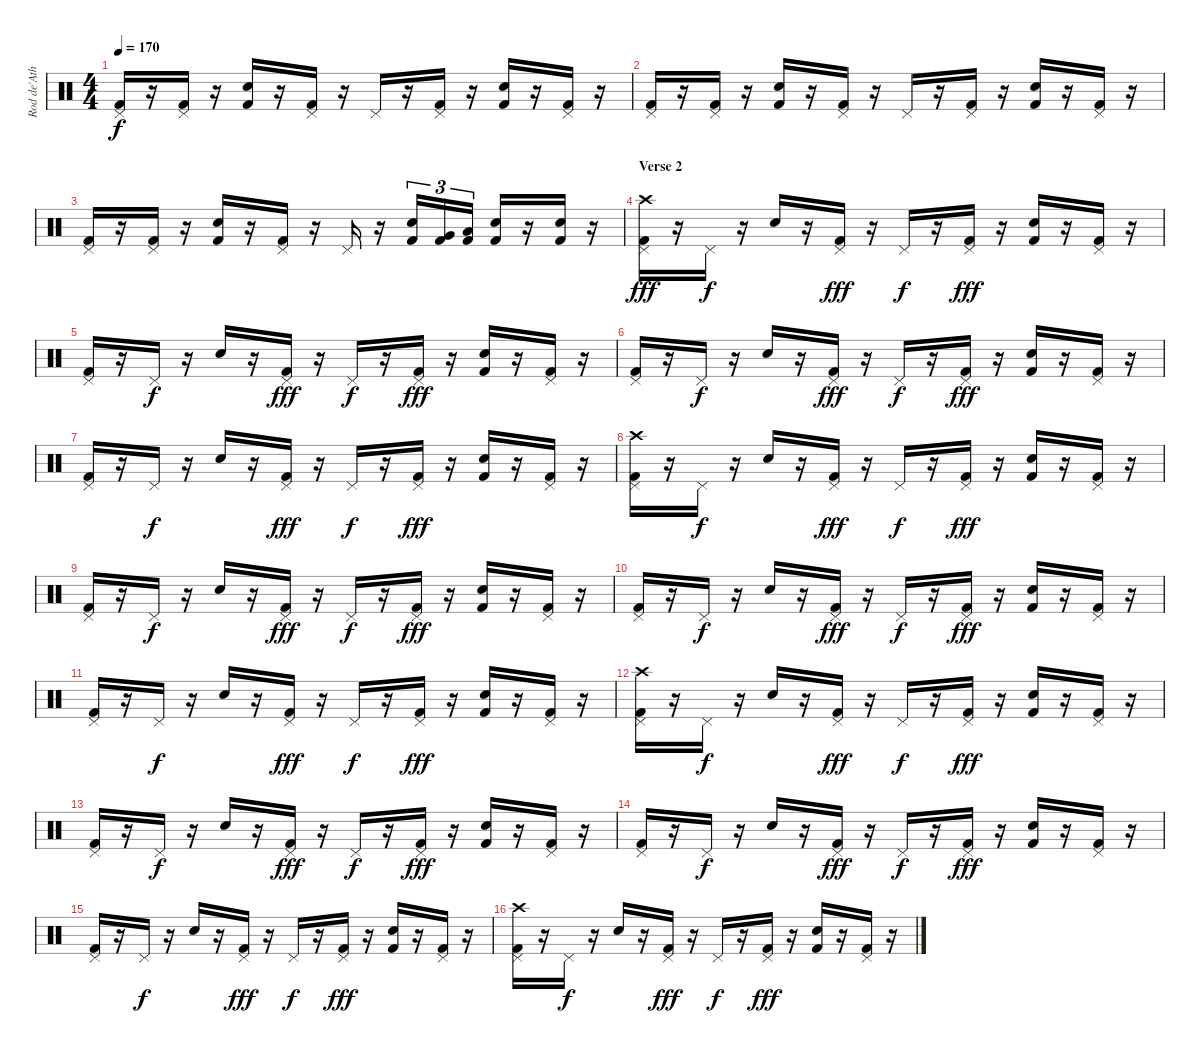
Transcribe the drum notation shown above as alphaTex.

\track ("Rod de'Ath" "Rod de'Ath") {instrument percussion}
\staff {score}
\articulation defaults
\ts (4 4)
\tempo 170
\clef neutral
\ks c
("Pedal Hi-Hat (hit)" "Kick (hit) 2").16{dy f} r.16 ("Pedal Hi-Hat (hit)" "Kick (hit) 2").16 r.16 ("Snare (hit) 2" "Kick (hit) 2").16 r.16 ("Pedal Hi-Hat (hit)" "Kick (hit) 2").16 r.16 "Pedal Hi-Hat (hit)".16 r.16 ("Pedal Hi-Hat (hit)" "Kick (hit) 2").16 r.16 ("Electric Snare (hit)" "Kick (hit) 2").16 r.16 ("Pedal Hi-Hat (hit)" "Kick (hit) 2").16 r.16 |
("Pedal Hi-Hat (hit)" "Kick (hit) 2").16 r.16 ("Pedal Hi-Hat (hit)" "Kick (hit) 2").16 r.16 ("Snare (hit) 2" "Kick (hit) 2").16 r.16 ("Pedal Hi-Hat (hit)" "Kick (hit) 2").16 r.16 "Pedal Hi-Hat (hit)".16 r.16 ("Pedal Hi-Hat (hit)" "Kick (hit) 2").16 r.16 ("Electric Snare (hit)" "Kick (hit) 2").16 r.16 ("Pedal Hi-Hat (hit)" "Kick (hit) 2").16 r.16 |
("Pedal Hi-Hat (hit)" "Kick (hit) 2").16 r.16 ("Pedal Hi-Hat (hit)" "Kick (hit) 2").16 r.16 ("Snare (hit) 2" "Kick (hit) 2").16 r.16 ("Pedal Hi-Hat (hit)" "Kick (hit) 2").16 r.16 "Pedal Hi-Hat (hit)".16 r.16 ("Snare (hit) 2" "Kick (hit) 2").16{tu (3 2)} ("Very Low Tom (hit)" "Kick (hit) 2").16{tu (3 2)} ("Low Tom (hit)" "Kick (hit) 2").16{tu (3 2)} ("Electric Snare (hit)" "Kick (hit) 2").16 r.16 ("Electric Snare (hit)" "Kick (hit) 2").16 r.16 |
\section ("" "Verse 2")
("Crash high (hit)" "Pedal Hi-Hat (hit)" "Kick (hit) 2").16{dy fff} r.16 "Pedal Hi-Hat (hit)".16{dy f} r.16 "Snare (hit) 2".16 r.16 ("Pedal Hi-Hat (hit)" "Kick (hit) 2").16{dy fff} r.16 "Pedal Hi-Hat (hit)".16{dy f} r.16 ("Pedal Hi-Hat (hit)" "Kick (hit) 2").16{dy fff} r.16 ("Electric Snare (hit)" "Kick (hit) 2").16 r.16 ("Pedal Hi-Hat (hit)" "Kick (hit) 2").16 r.16 |
("Pedal Hi-Hat (hit)" "Kick (hit) 2").16 r.16 "Pedal Hi-Hat (hit)".16{dy f} r.16 "Snare (hit) 2".16 r.16 ("Pedal Hi-Hat (hit)" "Kick (hit) 2").16{dy fff} r.16 "Pedal Hi-Hat (hit)".16{dy f} r.16 ("Pedal Hi-Hat (hit)" "Kick (hit) 2").16{dy fff} r.16 ("Electric Snare (hit)" "Kick (hit) 2").16 r.16 ("Pedal Hi-Hat (hit)" "Kick (hit) 2").16 r.16 |
("Pedal Hi-Hat (hit)" "Kick (hit) 2").16 r.16 "Pedal Hi-Hat (hit)".16{dy f} r.16 "Snare (hit) 2".16 r.16 ("Pedal Hi-Hat (hit)" "Kick (hit) 2").16{dy fff} r.16 "Pedal Hi-Hat (hit)".16{dy f} r.16 ("Pedal Hi-Hat (hit)" "Kick (hit) 2").16{dy fff} r.16 ("Electric Snare (hit)" "Kick (hit) 2").16 r.16 ("Pedal Hi-Hat (hit)" "Kick (hit) 2").16 r.16 |
("Pedal Hi-Hat (hit)" "Kick (hit) 2").16 r.16 "Pedal Hi-Hat (hit)".16{dy f} r.16 "Snare (hit) 2".16 r.16 ("Pedal Hi-Hat (hit)" "Kick (hit) 2").16{dy fff} r.16 "Pedal Hi-Hat (hit)".16{dy f} r.16 ("Pedal Hi-Hat (hit)" "Kick (hit) 2").16{dy fff} r.16 ("Electric Snare (hit)" "Kick (hit) 2").16 r.16 ("Pedal Hi-Hat (hit)" "Kick (hit) 2").16 r.16 |
("Crash high (hit)" "Pedal Hi-Hat (hit)" "Kick (hit) 2").16 r.16 "Pedal Hi-Hat (hit)".16{dy f} r.16 "Snare (hit) 2".16 r.16 ("Pedal Hi-Hat (hit)" "Kick (hit) 2").16{dy fff} r.16 "Pedal Hi-Hat (hit)".16{dy f} r.16 ("Pedal Hi-Hat (hit)" "Kick (hit) 2").16{dy fff} r.16 ("Electric Snare (hit)" "Kick (hit) 2").16 r.16 ("Pedal Hi-Hat (hit)" "Kick (hit) 2").16 r.16 |
("Pedal Hi-Hat (hit)" "Kick (hit) 2").16 r.16 "Pedal Hi-Hat (hit)".16{dy f} r.16 "Snare (hit) 2".16 r.16 ("Pedal Hi-Hat (hit)" "Kick (hit) 2").16{dy fff} r.16 "Pedal Hi-Hat (hit)".16{dy f} r.16 ("Pedal Hi-Hat (hit)" "Kick (hit) 2").16{dy fff} r.16 ("Electric Snare (hit)" "Kick (hit) 2").16 r.16 ("Pedal Hi-Hat (hit)" "Kick (hit) 2").16 r.16 |
("Pedal Hi-Hat (hit)" "Kick (hit) 2").16 r.16 "Pedal Hi-Hat (hit)".16{dy f} r.16 "Snare (hit) 2".16 r.16 ("Pedal Hi-Hat (hit)" "Kick (hit) 2").16{dy fff} r.16 "Pedal Hi-Hat (hit)".16{dy f} r.16 ("Pedal Hi-Hat (hit)" "Kick (hit) 2").16{dy fff} r.16 ("Electric Snare (hit)" "Kick (hit) 2").16 r.16 ("Pedal Hi-Hat (hit)" "Kick (hit) 2").16 r.16 |
("Pedal Hi-Hat (hit)" "Kick (hit) 2").16 r.16 "Pedal Hi-Hat (hit)".16{dy f} r.16 "Snare (hit) 2".16 r.16 ("Pedal Hi-Hat (hit)" "Kick (hit) 2").16{dy fff} r.16 "Pedal Hi-Hat (hit)".16{dy f} r.16 ("Pedal Hi-Hat (hit)" "Kick (hit) 2").16{dy fff} r.16 ("Electric Snare (hit)" "Kick (hit) 2").16 r.16 ("Pedal Hi-Hat (hit)" "Kick (hit) 2").16 r.16 |
("Crash high (hit)" "Pedal Hi-Hat (hit)" "Kick (hit) 2").16 r.16 "Pedal Hi-Hat (hit)".16{dy f} r.16 "Snare (hit) 2".16 r.16 ("Pedal Hi-Hat (hit)" "Kick (hit) 2").16{dy fff} r.16 "Pedal Hi-Hat (hit)".16{dy f} r.16 ("Pedal Hi-Hat (hit)" "Kick (hit) 2").16{dy fff} r.16 ("Electric Snare (hit)" "Kick (hit) 2").16 r.16 ("Pedal Hi-Hat (hit)" "Kick (hit) 2").16 r.16 |
("Pedal Hi-Hat (hit)" "Kick (hit) 2").16 r.16 "Pedal Hi-Hat (hit)".16{dy f} r.16 "Snare (hit) 2".16 r.16 ("Pedal Hi-Hat (hit)" "Kick (hit) 2").16{dy fff} r.16 "Pedal Hi-Hat (hit)".16{dy f} r.16 ("Pedal Hi-Hat (hit)" "Kick (hit) 2").16{dy fff} r.16 ("Electric Snare (hit)" "Kick (hit) 2").16 r.16 ("Pedal Hi-Hat (hit)" "Kick (hit) 2").16 r.16 |
("Pedal Hi-Hat (hit)" "Kick (hit) 2").16 r.16 "Pedal Hi-Hat (hit)".16{dy f} r.16 "Snare (hit) 2".16 r.16 ("Pedal Hi-Hat (hit)" "Kick (hit) 2").16{dy fff} r.16 "Pedal Hi-Hat (hit)".16{dy f} r.16 ("Pedal Hi-Hat (hit)" "Kick (hit) 2").16{dy fff} r.16 ("Electric Snare (hit)" "Kick (hit) 2").16 r.16 ("Pedal Hi-Hat (hit)" "Kick (hit) 2").16 r.16 |
("Pedal Hi-Hat (hit)" "Kick (hit) 2").16 r.16 "Pedal Hi-Hat (hit)".16{dy f} r.16 "Snare (hit) 2".16 r.16 ("Pedal Hi-Hat (hit)" "Kick (hit) 2").16{dy fff} r.16 "Pedal Hi-Hat (hit)".16{dy f} r.16 ("Pedal Hi-Hat (hit)" "Kick (hit) 2").16{dy fff} r.16 ("Electric Snare (hit)" "Kick (hit) 2").16 r.16 ("Pedal Hi-Hat (hit)" "Kick (hit) 2").16 r.16 |
("Crash high (hit)" "Pedal Hi-Hat (hit)" "Kick (hit) 2").16 r.16 "Pedal Hi-Hat (hit)".16{dy f} r.16 "Snare (hit) 2".16 r.16 ("Pedal Hi-Hat (hit)" "Kick (hit) 2").16{dy fff} r.16 "Pedal Hi-Hat (hit)".16{dy f} r.16 ("Pedal Hi-Hat (hit)" "Kick (hit) 2").16{dy fff} r.16 ("Electric Snare (hit)" "Kick (hit) 2").16 r.16 ("Pedal Hi-Hat (hit)" "Kick (hit) 2").16 r.16
